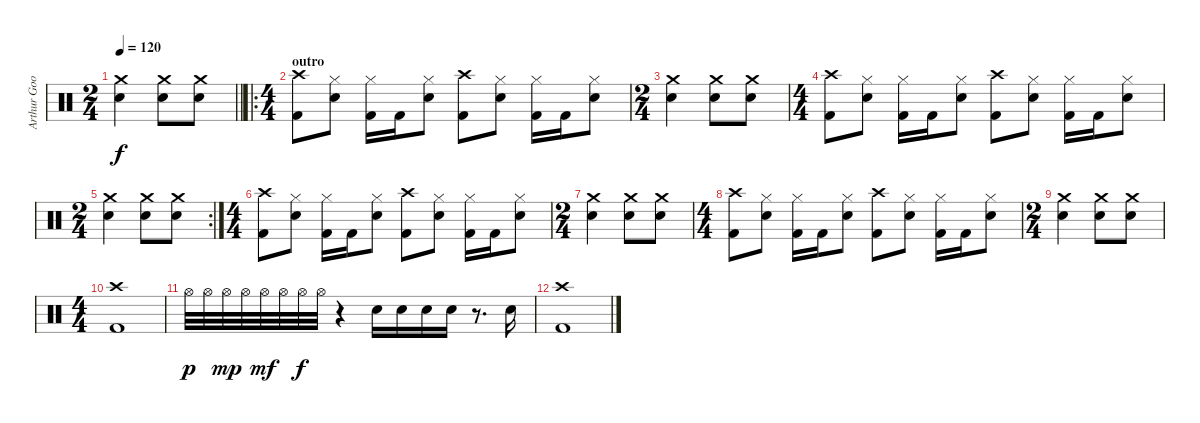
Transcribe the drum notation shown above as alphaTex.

\track ("Arthur Googy" "Arthur Goo") {instrument percussion}
\staff {score}
\articulation defaults
\ts (2 4)
\tempo 120
\clef neutral
\barLineRight lightlight
\ks c
("Crash medium (hit)" "Snare (hit) 2").4{dy f} ("Crash medium (hit)" "Snare (hit) 2").8 ("Crash medium (hit)" "Snare (hit) 2").8 |
\ro
\ts (4 4)
\section ("" "outro")
("Crash high (hit)" "Kick (hit) 2").8 ("Hi-Hat (closed)" "Snare (hit) 2").8 ("Hi-Hat (closed)" "Kick (hit) 2").16 "Kick (hit) 2".16 ("Hi-Hat (closed)" "Snare (hit) 2").8 ("Crash high (hit)" "Kick (hit) 2").8 ("Hi-Hat (closed)" "Snare (hit) 2").8 ("Hi-Hat (closed)" "Kick (hit) 2").16 "Kick (hit) 2".16 ("Hi-Hat (closed)" "Snare (hit) 2").8 |
\ts (2 4)
("Crash medium (hit)" "Snare (hit) 2").4 ("Crash medium (hit)" "Snare (hit) 2").8 ("Crash medium (hit)" "Snare (hit) 2").8 |
\ts (4 4)
("Crash high (hit)" "Kick (hit) 2").8 ("Hi-Hat (closed)" "Snare (hit) 2").8 ("Hi-Hat (closed)" "Kick (hit) 2").16 "Kick (hit) 2".16 ("Hi-Hat (closed)" "Snare (hit) 2").8 ("Crash high (hit)" "Kick (hit) 2").8 ("Hi-Hat (closed)" "Snare (hit) 2").8 ("Hi-Hat (closed)" "Kick (hit) 2").16 "Kick (hit) 2".16 ("Hi-Hat (closed)" "Snare (hit) 2").8 |
\rc 2
\ts (2 4)
("Crash medium (hit)" "Snare (hit) 2").4 ("Crash medium (hit)" "Snare (hit) 2").8 ("Crash medium (hit)" "Snare (hit) 2").8 |
\ts (4 4)
("Crash high (hit)" "Kick (hit) 2").8 ("Hi-Hat (closed)" "Snare (hit) 2").8 ("Hi-Hat (closed)" "Kick (hit) 2").16 "Kick (hit) 2".16 ("Hi-Hat (closed)" "Snare (hit) 2").8 ("Crash high (hit)" "Kick (hit) 2").8 ("Hi-Hat (closed)" "Snare (hit) 2").8 ("Hi-Hat (closed)" "Kick (hit) 2").16 "Kick (hit) 2".16 ("Hi-Hat (closed)" "Snare (hit) 2").8 |
\ts (2 4)
("Crash medium (hit)" "Snare (hit) 2").4 ("Crash medium (hit)" "Snare (hit) 2").8 ("Crash medium (hit)" "Snare (hit) 2").8 |
\ts (4 4)
("Crash high (hit)" "Kick (hit) 2").8 ("Hi-Hat (closed)" "Snare (hit) 2").8 ("Hi-Hat (closed)" "Kick (hit) 2").16 "Kick (hit) 2".16 ("Hi-Hat (closed)" "Snare (hit) 2").8 ("Crash high (hit)" "Kick (hit) 2").8 ("Hi-Hat (closed)" "Snare (hit) 2").8 ("Hi-Hat (closed)" "Kick (hit) 2").16 "Kick (hit) 2".16 ("Hi-Hat (closed)" "Snare (hit) 2").8 |
\ts (2 4)
("Crash medium (hit)" "Snare (hit) 2").4 ("Crash medium (hit)" "Snare (hit) 2").8 ("Crash medium (hit)" "Snare (hit) 2").8 |
\ts (4 4)
("Crash high (hit)" "Kick (hit) 2").1 |
"Hi-Hat (open)".32{dy p} "Hi-Hat (open)".32 "Hi-Hat (open)".32{dy mp} "Hi-Hat (open)".32 "Hi-Hat (open)".32{dy mf} "Hi-Hat (open)".32 "Hi-Hat (open)".32{dy f} "Hi-Hat (open)".32 r.4 "Snare (hit) 2".16 "Snare (hit) 2".16 "Snare (hit) 2".16 "Snare (hit) 2".16 r.8{d} "Snare (hit) 2".16 |
("Crash high (hit)" "Kick (hit) 2").1
